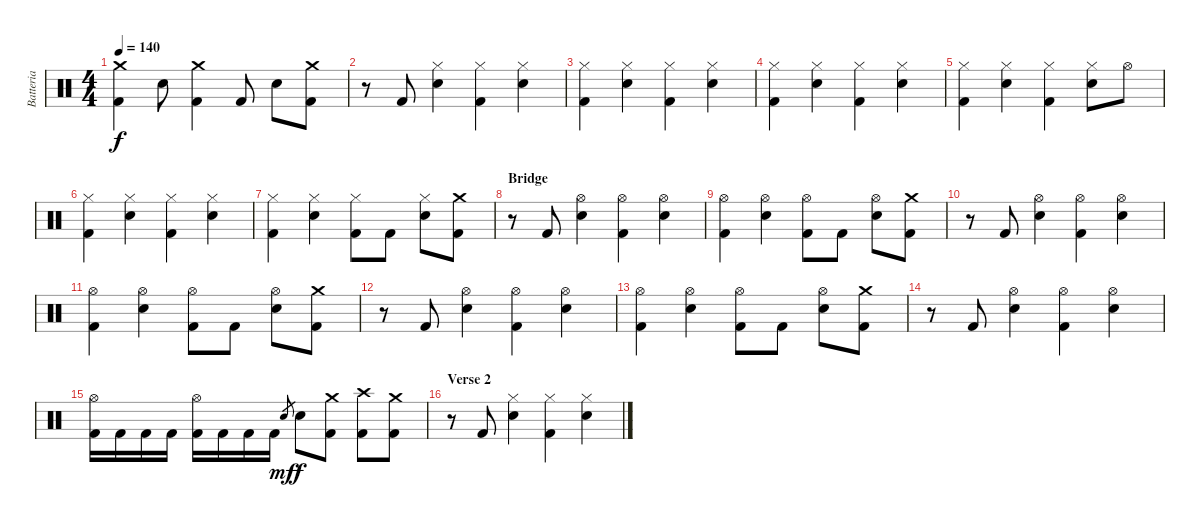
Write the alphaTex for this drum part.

\track ("Batteria" "Batteria") {instrument percussion}
\staff {score}
\articulation defaults
\ts (4 4)
\tempo 140
\clef neutral
\ks c
("Crash medium (hit)" "Kick (hit) 2").4{dy f} "Snare (hit) 2".8 ("Crash medium (hit)" "Kick (hit) 2").4 "Kick (hit) 2".8 "Snare (hit) 2".8 ("Crash medium (hit)" "Kick (hit) 2").8 |
r.8 "Kick (hit) 2".8 ("Hi-Hat (closed)" "Snare (hit) 2").4 ("Hi-Hat (closed)" "Kick (hit) 2").4 ("Hi-Hat (closed)" "Snare (hit) 2").4 |
("Hi-Hat (closed)" "Kick (hit) 2").4 ("Hi-Hat (closed)" "Snare (hit) 2").4 ("Hi-Hat (closed)" "Kick (hit) 2").4 ("Hi-Hat (closed)" "Snare (hit) 2").4 |
("Hi-Hat (closed)" "Kick (hit) 2").4 ("Hi-Hat (closed)" "Snare (hit) 2").4 ("Hi-Hat (closed)" "Kick (hit) 2").4 ("Hi-Hat (closed)" "Snare (hit) 2").4 |
("Hi-Hat (closed)" "Kick (hit) 2").4 ("Hi-Hat (closed)" "Snare (hit) 2").4 ("Hi-Hat (closed)" "Kick (hit) 2").4 ("Hi-Hat (closed)" "Snare (hit) 2").8 "Hi-Hat (open)".8 |
("Hi-Hat (closed)" "Kick (hit) 2").4 ("Hi-Hat (closed)" "Snare (hit) 2").4 ("Hi-Hat (closed)" "Kick (hit) 2").4 ("Hi-Hat (closed)" "Snare (hit) 2").4 |
("Hi-Hat (closed)" "Kick (hit) 2").4 ("Hi-Hat (closed)" "Snare (hit) 2").4 ("Hi-Hat (closed)" "Kick (hit) 2").8 "Kick (hit) 2".8 ("Hi-Hat (closed)" "Snare (hit) 2").8 ("Crash medium (hit)" "Kick (hit) 2").8 |
\section ("" "Bridge")
r.8 "Kick (hit) 2".8 ("Hi-Hat (open)" "Snare (hit) 2").4 ("Hi-Hat (open)" "Kick (hit) 2").4 ("Hi-Hat (open)" "Snare (hit) 2").4 |
("Hi-Hat (open)" "Kick (hit) 2").4 ("Hi-Hat (open)" "Snare (hit) 2").4 ("Hi-Hat (open)" "Kick (hit) 2").8 "Kick (hit) 2".8 ("Hi-Hat (open)" "Snare (hit) 2").8 ("Crash medium (hit)" "Kick (hit) 2").8 |
r.8 "Kick (hit) 2".8 ("Hi-Hat (open)" "Snare (hit) 2").4 ("Hi-Hat (open)" "Kick (hit) 2").4 ("Hi-Hat (open)" "Snare (hit) 2").4 |
("Hi-Hat (open)" "Kick (hit) 2").4 ("Hi-Hat (open)" "Snare (hit) 2").4 ("Hi-Hat (open)" "Kick (hit) 2").8 "Kick (hit) 2".8 ("Hi-Hat (open)" "Snare (hit) 2").8 ("Crash medium (hit)" "Kick (hit) 2").8 |
r.8 "Kick (hit) 2".8 ("Hi-Hat (open)" "Snare (hit) 2").4 ("Hi-Hat (open)" "Kick (hit) 2").4 ("Hi-Hat (open)" "Snare (hit) 2").4 |
("Hi-Hat (open)" "Kick (hit) 2").4 ("Hi-Hat (open)" "Snare (hit) 2").4 ("Hi-Hat (open)" "Kick (hit) 2").8 "Kick (hit) 2".8 ("Hi-Hat (open)" "Snare (hit) 2").8 ("Crash medium (hit)" "Kick (hit) 2").8 |
r.8 "Kick (hit) 2".8 ("Hi-Hat (open)" "Snare (hit) 2").4 ("Hi-Hat (open)" "Kick (hit) 2").4 ("Hi-Hat (open)" "Snare (hit) 2").4 |
("Hi-Hat (open)" "Kick (hit) 2").16 "Kick (hit) 2".16 "Kick (hit) 2".16 "Kick (hit) 2".16 ("Hi-Hat (open)" "Kick (hit) 2").16 "Kick (hit) 2".16 "Kick (hit) 2".16 "Kick (hit) 2".16 "Snare (hit) 2".8{gr dy mf} "Snare (hit) 2".8{dy f} ("Crash medium (hit)" "Kick (hit) 2").8 ("Crash high (hit)" "Kick (hit) 2").8 ("Crash medium (hit)" "Kick (hit) 2").8 |
\section ("" "Verse 2")
r.8 "Kick (hit) 2".8 ("Hi-Hat (closed)" "Snare (hit) 2").4 ("Hi-Hat (closed)" "Kick (hit) 2").4 ("Hi-Hat (closed)" "Snare (hit) 2").4
